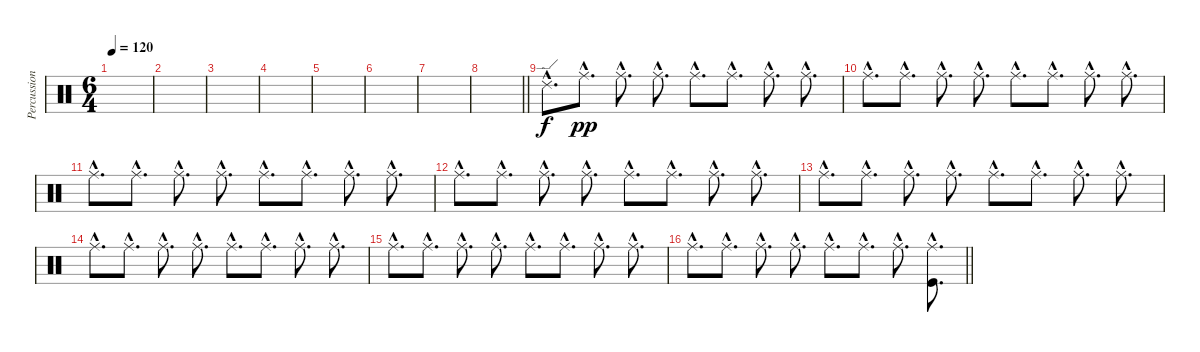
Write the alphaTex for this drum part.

\track ("Percussion" "Percussion") {instrument percussion}
\staff {score}
\articulation defaults
\ts (6 4)
\tempo 120
\clef neutral
\ks c
|
|
|
|
|
|
|
\barLineRight lightlight
|
"Ride (edge) 2"{hac}.8{d} "Ride (middle)"{hac}.8{d dy pp} "Ride (middle)"{hac}.8{d} "Ride (middle)"{hac}.8{d} "Ride (middle)"{hac}.8{d} "Ride (middle)"{hac}.8{d} "Ride (middle)"{hac}.8{d} "Ride (middle)"{hac}.8{d} |
"Ride (middle)"{hac}.8{d} "Ride (middle)"{hac}.8{d} "Ride (middle)"{hac}.8{d} "Ride (middle)"{hac}.8{d} "Ride (middle)"{hac}.8{d} "Ride (middle)"{hac}.8{d} "Ride (middle)"{hac}.8{d} "Ride (middle)"{hac}.8{d} |
"Ride (middle)"{hac}.8{d} "Ride (middle)"{hac}.8{d} "Ride (middle)"{hac}.8{d} "Ride (middle)"{hac}.8{d} "Ride (middle)"{hac}.8{d} "Ride (middle)"{hac}.8{d} "Ride (middle)"{hac}.8{d} "Ride (middle)"{hac}.8{d} |
"Ride (middle)"{hac}.8{d} "Ride (middle)"{hac}.8{d} "Ride (middle)"{hac}.8{d} "Ride (middle)"{hac}.8{d} "Ride (middle)"{hac}.8{d} "Ride (middle)"{hac}.8{d} "Ride (middle)"{hac}.8{d} "Ride (middle)"{hac}.8{d} |
"Ride (middle)"{hac}.8{d} "Ride (middle)"{hac}.8{d} "Ride (middle)"{hac}.8{d} "Ride (middle)"{hac}.8{d} "Ride (middle)"{hac}.8{d} "Ride (middle)"{hac}.8{d} "Ride (middle)"{hac}.8{d} "Ride (middle)"{hac}.8{d} |
"Ride (middle)"{hac}.8{d} "Ride (middle)"{hac}.8{d} "Ride (middle)"{hac}.8{d} "Ride (middle)"{hac}.8{d} "Ride (middle)"{hac}.8{d} "Ride (middle)"{hac}.8{d} "Ride (middle)"{hac}.8{d} "Ride (middle)"{hac}.8{d} |
"Ride (middle)"{hac}.8{d} "Ride (middle)"{hac}.8{d} "Ride (middle)"{hac}.8{d} "Ride (middle)"{hac}.8{d} "Ride (middle)"{hac}.8{d} "Ride (middle)"{hac}.8{d} "Ride (middle)"{hac}.8{d} "Ride (middle)"{hac}.8{d} |
\barLineRight lightlight "Ride (middle)"{hac}.8{d} "Ride (middle)"{hac}.8{d} "Ride (middle)"{hac}.8{d} "Ride (middle)"{hac}.8{d} "Ride (middle)"{hac}.8{d} "Ride (middle)"{hac}.8{d} "Ride (middle)"{hac}.8{d}
("Ride (middle)"{hac} "Kick (hit)"{hac}).8{d}
